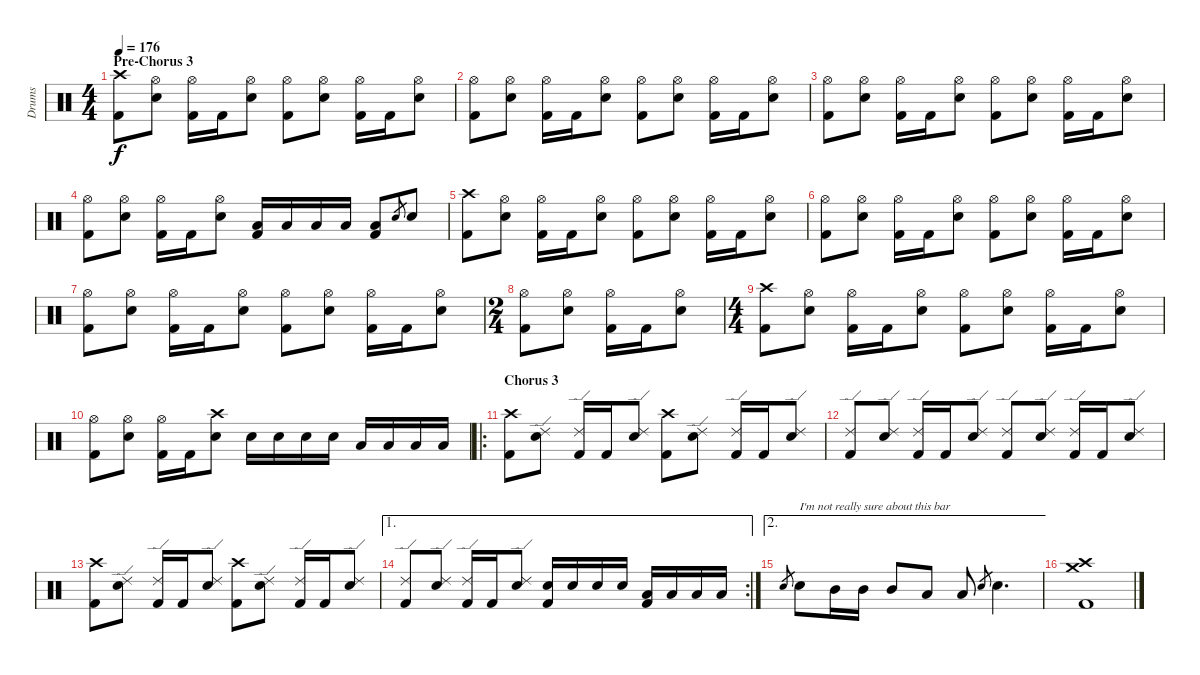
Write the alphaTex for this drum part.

\track ("Drums" "Drums") {instrument percussion}
\staff {score}
\articulation defaults
\ts (4 4)
\section ("" "Pre-Chorus 3")
\tempo 176
\clef neutral
\ks c
("Crash high (hit)" "Kick (hit) 2").8{dy f} ("Hi-Hat (open)" "Electric Snare (hit)").8 ("Hi-Hat (open)" "Kick (hit) 2").16 "Kick (hit) 2".16 ("Hi-Hat (open)" "Electric Snare (hit)").8 ("Hi-Hat (open)" "Kick (hit) 2").8 ("Hi-Hat (open)" "Electric Snare (hit)").8 ("Hi-Hat (open)" "Kick (hit) 2").16 "Kick (hit) 2".16 ("Hi-Hat (open)" "Electric Snare (hit)").8 |
("Hi-Hat (open)" "Kick (hit) 2").8 ("Hi-Hat (open)" "Electric Snare (hit)").8 ("Hi-Hat (open)" "Kick (hit) 2").16 "Kick (hit) 2".16 ("Hi-Hat (open)" "Electric Snare (hit)").8 ("Hi-Hat (open)" "Kick (hit) 2").8 ("Hi-Hat (open)" "Electric Snare (hit)").8 ("Hi-Hat (open)" "Kick (hit) 2").16 "Kick (hit) 2".16 ("Hi-Hat (open)" "Electric Snare (hit)").8 |
("Hi-Hat (open)" "Kick (hit) 2").8 ("Hi-Hat (open)" "Electric Snare (hit)").8 ("Hi-Hat (open)" "Kick (hit) 2").16 "Kick (hit) 2".16 ("Hi-Hat (open)" "Electric Snare (hit)").8 ("Hi-Hat (open)" "Kick (hit) 2").8 ("Hi-Hat (open)" "Electric Snare (hit)").8 ("Hi-Hat (open)" "Kick (hit) 2").16 "Kick (hit) 2".16 ("Hi-Hat (open)" "Electric Snare (hit)").8 |
("Hi-Hat (open)" "Kick (hit) 2").8 ("Hi-Hat (open)" "Electric Snare (hit)").8 ("Hi-Hat (open)" "Kick (hit) 2").16 "Kick (hit) 2".16 ("Hi-Hat (open)" "Electric Snare (hit)").8 ("Low Tom (hit)" "Kick (hit) 2").16 "Low Tom (hit)".16 "Low Tom (hit)".16 "Low Tom (hit)".16 ("Low Tom (hit)" "Kick (hit) 2").8 "Electric Snare (hit)".8{gr} "Electric Snare (hit)".8 |
("Crash high (hit)" "Kick (hit) 2").8 ("Hi-Hat (open)" "Electric Snare (hit)").8 ("Hi-Hat (open)" "Kick (hit) 2").16 "Kick (hit) 2".16 ("Hi-Hat (open)" "Electric Snare (hit)").8 ("Hi-Hat (open)" "Kick (hit) 2").8 ("Hi-Hat (open)" "Electric Snare (hit)").8 ("Hi-Hat (open)" "Kick (hit) 2").16 "Kick (hit) 2".16 ("Hi-Hat (open)" "Electric Snare (hit)").8 |
("Hi-Hat (open)" "Kick (hit) 2").8 ("Hi-Hat (open)" "Electric Snare (hit)").8 ("Hi-Hat (open)" "Kick (hit) 2").16 "Kick (hit) 2".16 ("Hi-Hat (open)" "Electric Snare (hit)").8 ("Hi-Hat (open)" "Kick (hit) 2").8 ("Hi-Hat (open)" "Electric Snare (hit)").8 ("Hi-Hat (open)" "Kick (hit) 2").16 "Kick (hit) 2".16 ("Hi-Hat (open)" "Electric Snare (hit)").8 |
("Hi-Hat (open)" "Kick (hit) 2").8 ("Hi-Hat (open)" "Electric Snare (hit)").8 ("Hi-Hat (open)" "Kick (hit) 2").16 "Kick (hit) 2".16 ("Hi-Hat (open)" "Electric Snare (hit)").8 ("Hi-Hat (open)" "Kick (hit) 2").8 ("Hi-Hat (open)" "Electric Snare (hit)").8 ("Hi-Hat (open)" "Kick (hit) 2").16 "Kick (hit) 2".16 ("Hi-Hat (open)" "Electric Snare (hit)").8 |
\ts (2 4)
("Hi-Hat (open)" "Kick (hit) 2").8 ("Hi-Hat (open)" "Electric Snare (hit)").8 ("Hi-Hat (open)" "Kick (hit) 2").16 "Kick (hit) 2".16 ("Hi-Hat (open)" "Electric Snare (hit)").8 |
\ts (4 4)
("Crash high (hit)" "Kick (hit) 2").8 ("Hi-Hat (open)" "Electric Snare (hit)").8 ("Hi-Hat (open)" "Kick (hit) 2").16 "Kick (hit) 2".16 ("Hi-Hat (open)" "Electric Snare (hit)").8 ("Hi-Hat (open)" "Kick (hit) 2").8 ("Hi-Hat (open)" "Electric Snare (hit)").8 ("Hi-Hat (open)" "Kick (hit) 2").16 "Kick (hit) 2".16 ("Hi-Hat (open)" "Electric Snare (hit)").8 |
("Hi-Hat (open)" "Kick (hit) 2").8 ("Hi-Hat (open)" "Electric Snare (hit)").8 ("Hi-Hat (open)" "Kick (hit) 2").16 "Kick (hit) 2".16 ("Crash high (hit)" "Electric Snare (hit)").8 "Electric Snare (hit)".16 "Electric Snare (hit)".16 "Electric Snare (hit)".16 "Electric Snare (hit)".16 "Low Tom (hit)".16 "Low Tom (hit)".16 "Low Tom (hit)".16 "Low Tom (hit)".16 |
\ro
\section ("" "Chorus 3")
("Crash high (hit)" "Kick (hit) 2").8 ("Ride (edge) 2" "Electric Snare (hit)").8 ("Ride (edge) 2" "Kick (hit) 2").16 "Kick (hit) 2".16 ("Ride (edge) 2" "Electric Snare (hit)").8 ("Crash high (hit)" "Kick (hit) 2").8 ("Ride (edge) 2" "Electric Snare (hit)").8 ("Ride (edge) 2" "Kick (hit) 2").16 "Kick (hit) 2".16 ("Ride (edge) 2" "Electric Snare (hit)").8 |
("Ride (edge) 2" "Kick (hit) 2").8 ("Ride (edge) 2" "Electric Snare (hit)").8 ("Ride (edge) 2" "Kick (hit) 2").16 "Kick (hit) 2".16 ("Ride (edge) 2" "Electric Snare (hit)").8 ("Ride (edge) 2" "Kick (hit) 2").8 ("Ride (edge) 2" "Electric Snare (hit)").8 ("Ride (edge) 2" "Kick (hit) 2").16 "Kick (hit) 2".16 ("Ride (edge) 2" "Electric Snare (hit)").8 |
("Crash high (hit)" "Kick (hit) 2").8 ("Ride (edge) 2" "Electric Snare (hit)").8 ("Ride (edge) 2" "Kick (hit) 2").16 "Kick (hit) 2".16 ("Ride (edge) 2" "Electric Snare (hit)").8 ("Crash high (hit)" "Kick (hit) 2").8 ("Ride (edge) 2" "Electric Snare (hit)").8 ("Ride (edge) 2" "Kick (hit) 2").16 "Kick (hit) 2".16 ("Ride (edge) 2" "Electric Snare (hit)").8 |
\ae 1
\rc 2
("Ride (edge) 2" "Kick (hit) 2").8 ("Ride (edge) 2" "Electric Snare (hit)").8 ("Ride (edge) 2" "Kick (hit) 2").16 "Kick (hit) 2".16 ("Ride (edge) 2" "Electric Snare (hit)").8 ("Electric Snare (hit)" "Kick (hit) 2").16 "Electric Snare (hit)".16 "Electric Snare (hit)".16 "Electric Snare (hit)".16 ("Low Tom (hit)" "Kick (hit) 2").16 "Low Tom (hit)".16 "Low Tom (hit)".16 "Low Tom (hit)".16 |
\ae 2 "Electric Snare (hit)".8{gr} "Electric Snare (hit)".8{txt "I'm not really sure about this bar"} "Mid Tom (hit)".16 "Mid Tom (hit)".16 "Mid Tom (hit)".8 "Low Tom (hit)".8 "Low Tom (hit)".8 "Electric Snare (hit)".8{gr} "Electric Snare (hit)".4{d}
|
("Crash high (hit)" "Crash medium (hit)" "Kick (hit) 2").1
